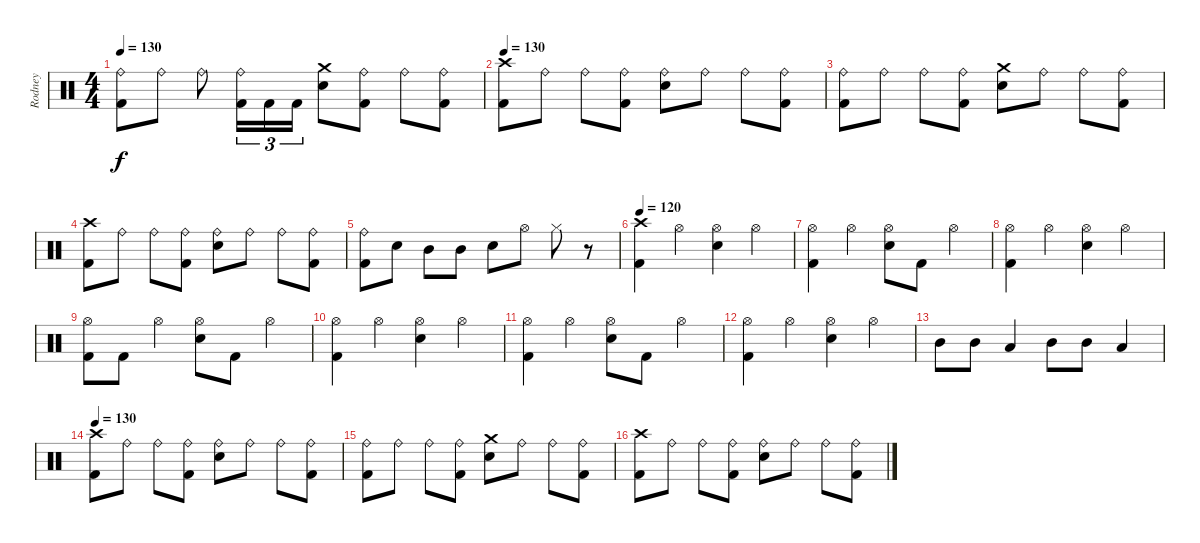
\track ("Rodney" "Rodney") {instrument percussion}
\staff {score}
\articulation defaults
\ts (4 4)
\tempo 130
\clef neutral
\ks c
("Ride (bell)" "Kick (hit) 2").8{dy f} "Ride (bell)".8 "Ride (bell)".8 ("Ride (bell)" "Kick (hit) 2").16{tu (3 2)} "Kick (hit) 2".16{tu (3 2)} "Kick (hit) 2".16{tu (3 2)} ("Crash medium (hit)" "Snare (hit) 2").8 ("Ride (bell)" "Kick (hit) 2").8 "Ride (bell)".8 ("Ride (bell)" "Kick (hit) 2").8 |
\tempo 130
("Crash high (hit)" "Kick (hit) 2").8 "Ride (bell)".8 "Ride (bell)".8 ("Ride (bell)" "Kick (hit) 2").8 ("Ride (bell)" "Snare (hit) 2").8 "Ride (bell)".8 "Ride (bell)".8 ("Ride (bell)" "Kick (hit) 2").8 |
("Ride (bell)" "Kick (hit) 2").8 "Ride (bell)".8 "Ride (bell)".8 ("Ride (bell)" "Kick (hit) 2").8 ("Crash medium (hit)" "Snare (hit) 2").8 "Ride (bell)".8 "Ride (bell)".8 ("Ride (bell)" "Kick (hit) 2").8 |
("Crash high (hit)" "Kick (hit) 2").8 "Ride (bell)".8 "Ride (bell)".8 ("Ride (bell)" "Kick (hit) 2").8 ("Ride (bell)" "Snare (hit) 2").8 "Ride (bell)".8 "Ride (bell)".8 ("Ride (bell)" "Kick (hit) 2").8 |
("Ride (bell)" "Kick (hit) 2").8 "Snare (hit) 2".8 "Mid Tom (hit)".8 "Mid Tom (hit)".8 "Snare (hit) 2".8 "Hi-Hat (open)".8 "Hi-Hat (closed)".8 r.8 |
\tempo 120
("Crash high (hit)" "Kick (hit) 2").4 "Hi-Hat (open)".4 ("Hi-Hat (open)" "Snare (hit) 2").4 "Hi-Hat (open)".4 |
("Hi-Hat (open)" "Kick (hit) 2").4 "Hi-Hat (open)".4 ("Hi-Hat (open)" "Snare (hit) 2").8 "Kick (hit) 2".8 "Hi-Hat (open)".4 |
("Hi-Hat (open)" "Kick (hit) 2").4 "Hi-Hat (open)".4 ("Hi-Hat (open)" "Snare (hit) 2").4 "Hi-Hat (open)".4 |
("Hi-Hat (open)" "Kick (hit) 2").8 "Kick (hit) 2".8 "Hi-Hat (open)".4 ("Hi-Hat (open)" "Snare (hit) 2").8 "Kick (hit) 2".8 "Hi-Hat (open)".4 |
("Hi-Hat (open)" "Kick (hit) 2").4 "Hi-Hat (open)".4 ("Hi-Hat (open)" "Snare (hit) 2").4 "Hi-Hat (open)".4 |
("Hi-Hat (open)" "Kick (hit) 2").4 "Hi-Hat (open)".4 ("Hi-Hat (open)" "Snare (hit) 2").8 "Kick (hit) 2".8 "Hi-Hat (open)".4 |
("Hi-Hat (open)" "Kick (hit) 2").4 "Hi-Hat (open)".4 ("Hi-Hat (open)" "Snare (hit) 2").4 "Hi-Hat (open)".4 |
"Mid Tom (hit)".8 "Mid Tom (hit)".8 "Low Tom (hit)".4 "Mid Tom (hit)".8 "Mid Tom (hit)".8 "Low Tom (hit)".4 |
\tempo 130
("Crash high (hit)" "Kick (hit) 2").8 "Ride (bell)".8 "Ride (bell)".8 ("Ride (bell)" "Kick (hit) 2").8 ("Ride (bell)" "Snare (hit) 2").8 "Ride (bell)".8 "Ride (bell)".8 ("Ride (bell)" "Kick (hit) 2").8 |
("Ride (bell)" "Kick (hit) 2").8 "Ride (bell)".8 "Ride (bell)".8 ("Ride (bell)" "Kick (hit) 2").8 ("Crash medium (hit)" "Snare (hit) 2").8 "Ride (bell)".8 "Ride (bell)".8 ("Ride (bell)" "Kick (hit) 2").8 |
("Crash high (hit)" "Kick (hit) 2").8 "Ride (bell)".8 "Ride (bell)".8 ("Ride (bell)" "Kick (hit) 2").8 ("Ride (bell)" "Snare (hit) 2").8 "Ride (bell)".8 "Ride (bell)".8 ("Ride (bell)" "Kick (hit) 2").8
